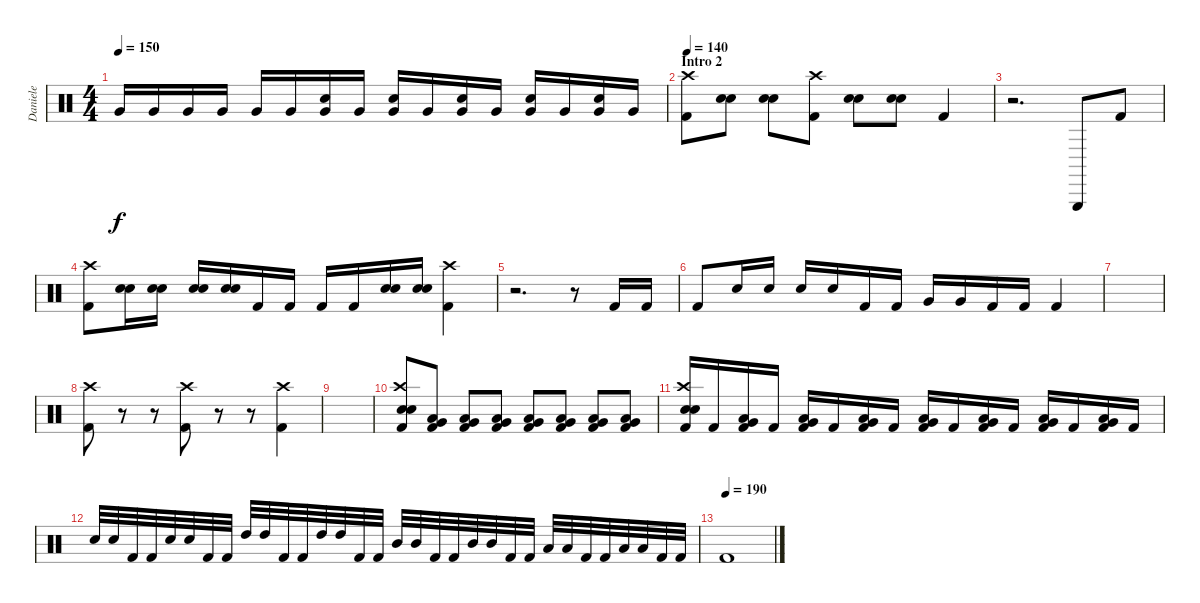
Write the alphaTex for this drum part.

\track ("Daniele" "Daniele") {instrument percussion}
\staff {score}
\articulation defaults
\ts (4 4)
\tempo 150
\clef neutral
\ks c "Very Low Tom (hit)".16{dy f} "Very Low Tom (hit)".16 "Very Low Tom (hit)".16 "Very Low Tom (hit)".16 "Very Low Tom (hit)".16 "Very Low Tom (hit)".16
("Very Low Tom (hit)" "Snare (hit) 2").16 "Very Low Tom (hit)".16 ("Very Low Tom (hit)" "Snare (hit) 2").16 "Very Low Tom (hit)".16 ("Very Low Tom (hit)" "Snare (hit) 2").16 "Very Low Tom (hit)".16 ("Very Low Tom (hit)" "Snare (hit) 2").16 "Very Low Tom (hit)".16 ("Very Low Tom (hit)" "Snare (hit) 2").16 "Very Low Tom (hit)".16 |
\section ("" "Intro 2")
\tempo 140
("Crash high (hit)" "Kick (hit) 2").8 ("Snare (hit) 2" "Electric Snare (hit)").8 ("Snare (hit) 2" "Electric Snare (hit)").8 ("Crash high (hit)" "Kick (hit) 2").8 ("Electric Snare (hit)" "Snare (hit) 2").8 ("Electric Snare (hit)" "Snare (hit) 2").8 "Kick (hit) 2".4 |
r.2{d} "Triangle (hit)".8 "Kick (hit) 2".8 |
("Crash high (hit)" "Kick (hit) 2").8 ("Snare (hit) 2" "Electric Snare (hit)").16 ("Snare (hit) 2" "Electric Snare (hit)").16 ("Snare (hit) 2" "Electric Snare (hit)").16 ("Snare (hit) 2" "Electric Snare (hit)").16 "Kick (hit) 2".16 "Kick (hit) 2".16 "Kick (hit) 2".16 "Kick (hit) 2".16 ("Snare (hit) 2" "Electric Snare (hit)").16 ("Snare (hit) 2" "Electric Snare (hit)").16 ("Crash high (hit)" "Kick (hit) 2").4 |
r.2{d} r.8 "Kick (hit) 2".16 "Kick (hit) 2".16 |
"Kick (hit) 2".8 "Snare (hit) 2".16 "Snare (hit) 2".16 "Snare (hit) 2".16 "Snare (hit) 2".16 "Kick (hit) 2".16 "Kick (hit) 2".16 "Very Low Tom (hit)".16 "Very Low Tom (hit)".16 "Kick (hit) 2".16 "Kick (hit) 2".16 "Kick (hit) 2".4 |
|
("Kick (hit) 2" "Crash high (hit)").8 r.8 r.8 ("Kick (hit) 2" "Crash high (hit)").8 r.8 r.8 ("Kick (hit) 2" "Crash high (hit)").4 |
|
("Crash high (hit)" "Snare (hit) 2" "Electric Snare (hit)" "Kick (hit) 2").8 ("Very Low Tom (hit)" "Low Floor Tom (hit)" "Kick (hit) 2").8 ("Very Low Tom (hit)" "Low Floor Tom (hit)" "Kick (hit) 2").8 ("Very Low Tom (hit)" "Low Floor Tom (hit)" "Kick (hit) 2").8 ("Very Low Tom (hit)" "Low Floor Tom (hit)" "Kick (hit) 2").8 ("Very Low Tom (hit)" "Low Floor Tom (hit)" "Kick (hit) 2").8 ("Very Low Tom (hit)" "Low Floor Tom (hit)" "Kick (hit) 2").8 ("Very Low Tom (hit)" "Low Floor Tom (hit)" "Kick (hit) 2").8 |
("Crash high (hit)" "Snare (hit) 2" "Electric Snare (hit)" "Kick (hit) 2").16 "Kick (hit) 2".16 ("Low Floor Tom (hit)" "Very Low Tom (hit)" "Kick (hit) 2").16 "Kick (hit) 2".16 ("Low Floor Tom (hit)" "Very Low Tom (hit)" "Kick (hit) 2").16 "Kick (hit) 2".16 ("Low Floor Tom (hit)" "Very Low Tom (hit)" "Kick (hit) 2").16 "Kick (hit) 2".16 ("Low Floor Tom (hit)" "Very Low Tom (hit)" "Kick (hit) 2").16 "Kick (hit) 2".16 ("Low Floor Tom (hit)" "Very Low Tom (hit)" "Kick (hit) 2").16 "Kick (hit) 2".16 ("Low Floor Tom (hit)" "Very Low Tom (hit)" "Kick (hit) 2").16 "Kick (hit) 2".16 ("Low Floor Tom (hit)" "Very Low Tom (hit)" "Kick (hit) 2").16 "Kick (hit) 2".16 |
"Electric Snare (hit)".32 "Electric Snare (hit)".32 "Kick (hit) 2".32 "Kick (hit) 2".32 "Electric Snare (hit)".32 "Electric Snare (hit)".32 "Kick (hit) 2".32 "Kick (hit) 2".32 "High Tom (hit)".32 "High Tom (hit)".32 "Kick (hit) 2".32 "Kick (hit) 2".32 "High Tom (hit)".32 "High Tom (hit)".32 "Kick (hit) 2".32 "Kick (hit) 2".32 "Mid Tom (hit)".32 "Mid Tom (hit)".32 "Kick (hit) 2".32 "Kick (hit) 2".32 "Mid Tom (hit)".32 "Mid Tom (hit)".32 "Kick (hit) 2".32 "Kick (hit) 2".32 "Low Tom (hit)".32 "Low Tom (hit)".32 "Kick (hit) 2".32 "Kick (hit) 2".32 "Low Tom (hit)".32 "Low Tom (hit)".32 "Kick (hit) 2".32 "Kick (hit) 2".32 |
\tempo (190)
"Kick (hit) 2".1
